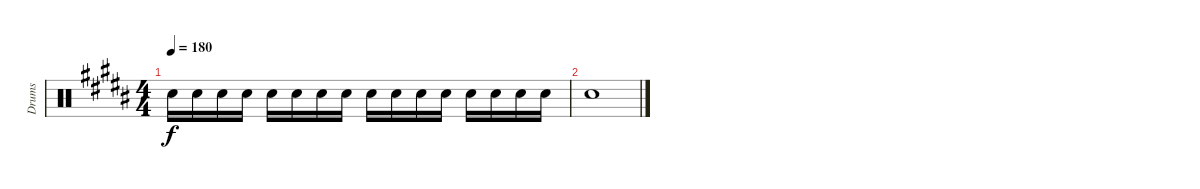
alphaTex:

\track ("Drums" "Drums") {instrument percussion}
\staff {score}
\articulation defaults
\ts (4 4)
\tempo 180
\clef neutral
\ks b "Snare (hit) 2".16{dy f} "Snare (hit) 2".16 "Snare (hit) 2".16 "Snare (hit) 2".16 "Snare (hit) 2".16 "Snare (hit) 2".16 "Snare (hit) 2".16 "Snare (hit) 2".16 "Snare (hit) 2".16 "Snare (hit) 2".16 "Snare (hit) 2".16 "Snare (hit) 2".16 "Snare (hit) 2".16 "Snare (hit) 2".16 "Snare (hit) 2".16 "Snare (hit) 2".16
|
"Snare (hit) 2".1
